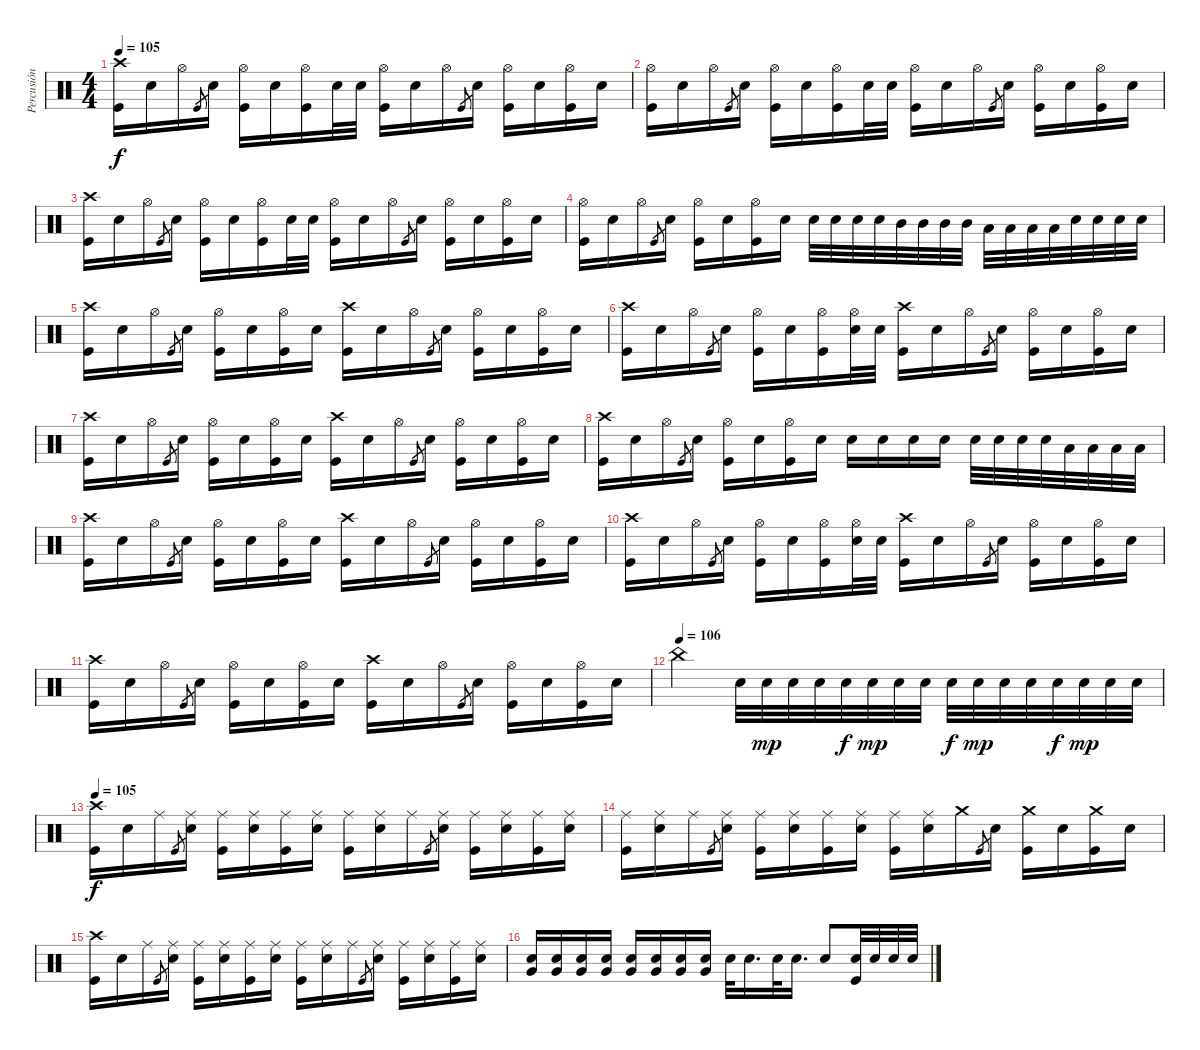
\track ("Percusión" "Percusión") {instrument percussion}
\staff {score}
\articulation defaults
\ts (4 4)
\tempo 105
\clef neutral
\ks c
("Kick (hit)" "Crash high (hit)").16{dy f} "Snare (hit) 2".16 "Hi-Hat (open)".16 "Kick (hit)".8{gr} "Snare (hit) 2".16 ("Kick (hit)" "Hi-Hat (open)").16 "Snare (hit) 2".16 ("Kick (hit)" "Hi-Hat (open)").16 "Snare (hit) 2".32 "Snare (hit) 2".32 ("Kick (hit)" "Hi-Hat (open)").16 "Snare (hit) 2".16 "Hi-Hat (open)".16 "Kick (hit)".8{gr} "Snare (hit) 2".16 ("Kick (hit)" "Hi-Hat (open)").16 "Snare (hit) 2".16 ("Kick (hit)" "Hi-Hat (open)").16 "Snare (hit) 2".16 |
("Kick (hit)" "Hi-Hat (open)").16 "Snare (hit) 2".16 "Hi-Hat (open)".16 "Kick (hit)".8{gr} "Snare (hit) 2".16 ("Kick (hit)" "Hi-Hat (open)").16 "Snare (hit) 2".16 ("Kick (hit)" "Hi-Hat (open)").16 "Snare (hit) 2".32 "Snare (hit) 2".32 ("Kick (hit)" "Hi-Hat (open)").16 "Snare (hit) 2".16 "Hi-Hat (open)".16 "Kick (hit)".8{gr} "Snare (hit) 2".16 ("Kick (hit)" "Hi-Hat (open)").16 "Snare (hit) 2".16 ("Kick (hit)" "Hi-Hat (open)").16 "Snare (hit) 2".16 |
("Kick (hit)" "Crash high (hit)").16 "Snare (hit) 2".16 "Hi-Hat (open)".16 "Kick (hit)".8{gr} "Snare (hit) 2".16 ("Kick (hit)" "Hi-Hat (open)").16 "Snare (hit) 2".16 ("Kick (hit)" "Hi-Hat (open)").16 "Snare (hit) 2".32 "Snare (hit) 2".32 ("Kick (hit)" "Hi-Hat (open)").16 "Snare (hit) 2".16 "Hi-Hat (open)".16 "Kick (hit)".8{gr} "Snare (hit) 2".16 ("Kick (hit)" "Hi-Hat (open)").16 "Snare (hit) 2".16 ("Kick (hit)" "Hi-Hat (open)").16 "Snare (hit) 2".16 |
("Kick (hit)" "Hi-Hat (open)").16 "Snare (hit) 2".16 "Hi-Hat (open)".16 "Kick (hit)".8{gr} "Snare (hit) 2".16 ("Kick (hit)" "Hi-Hat (open)").16 "Snare (hit) 2".16 ("Kick (hit)" "Hi-Hat (open)").16 "Snare (hit) 2".16 "Snare (hit) 2".32 "Snare (hit) 2".32 "Snare (hit) 2".32 "Snare (hit) 2".32 "Mid Tom (hit)".32 "Mid Tom (hit)".32 "Mid Tom (hit)".32 "Mid Tom (hit)".32 "Low Tom (hit)".32 "Low Tom (hit)".32 "Low Tom (hit)".32 "Low Tom (hit)".32 "Snare (hit) 2".32 "Snare (hit) 2".32 "Snare (hit) 2".32 "Snare (hit) 2".32 |
("Kick (hit)" "Crash high (hit)").16 "Snare (hit) 2".16 "Hi-Hat (open)".16 "Kick (hit)".8{gr} "Snare (hit) 2".16 ("Kick (hit)" "Hi-Hat (open)").16 "Snare (hit) 2".16 ("Kick (hit)" "Hi-Hat (open)").16 "Snare (hit) 2".16 ("Kick (hit)" "Crash high (hit)").16 "Snare (hit) 2".16 "Hi-Hat (open)".16 "Kick (hit)".8{gr} "Snare (hit) 2".16 ("Kick (hit)" "Hi-Hat (open)").16 "Snare (hit) 2".16 ("Kick (hit)" "Hi-Hat (open)").16 "Snare (hit) 2".16 |
("Kick (hit)" "Crash high (hit)").16 "Snare (hit) 2".16 "Hi-Hat (open)".16 "Kick (hit)".8{gr} "Snare (hit) 2".16 ("Kick (hit)" "Hi-Hat (open)").16 "Snare (hit) 2".16 ("Kick (hit)" "Hi-Hat (open)").16 ("Snare (hit) 2" "Hi-Hat (open)").32 "Snare (hit) 2".32 ("Kick (hit)" "Crash high (hit)").16 "Snare (hit) 2".16 "Hi-Hat (open)".16 "Kick (hit)".8{gr} "Snare (hit) 2".16 ("Kick (hit)" "Hi-Hat (open)").16 "Snare (hit) 2".16 ("Kick (hit)" "Hi-Hat (open)").16 "Snare (hit) 2".16 |
("Kick (hit)" "Crash high (hit)").16 "Snare (hit) 2".16 "Hi-Hat (open)".16 "Kick (hit)".8{gr} "Snare (hit) 2".16 ("Kick (hit)" "Hi-Hat (open)").16 "Snare (hit) 2".16 ("Kick (hit)" "Hi-Hat (open)").16 "Snare (hit) 2".16 ("Kick (hit)" "Crash high (hit)").16 "Snare (hit) 2".16 "Hi-Hat (open)".16 "Kick (hit)".8{gr} "Snare (hit) 2".16 ("Kick (hit)" "Hi-Hat (open)").16 "Snare (hit) 2".16 ("Kick (hit)" "Hi-Hat (open)").16 "Snare (hit) 2".16 |
("Kick (hit)" "Crash high (hit)").16 "Snare (hit) 2".16 "Hi-Hat (open)".16 "Kick (hit)".8{gr} "Snare (hit) 2".16 ("Kick (hit)" "Hi-Hat (open)").16 "Snare (hit) 2".16 ("Kick (hit)" "Hi-Hat (open)").16 "Snare (hit) 2".16 "Snare (hit) 2".16 "Snare (hit) 2".16 "Snare (hit) 2".16 "Snare (hit) 2".16 "Snare (hit) 2".32 "Snare (hit) 2".32 "Snare (hit) 2".32 "Snare (hit) 2".32 "Low Tom (hit)".32 "Low Tom (hit)".32 "Low Tom (hit)".32 "Low Tom (hit)".32 |
("Kick (hit)" "Crash high (hit)").16 "Snare (hit) 2".16 "Hi-Hat (open)".16 "Kick (hit)".8{gr} "Snare (hit) 2".16 ("Kick (hit)" "Hi-Hat (open)").16 "Snare (hit) 2".16 ("Kick (hit)" "Hi-Hat (open)").16 "Snare (hit) 2".16 ("Kick (hit)" "Crash high (hit)").16 "Snare (hit) 2".16 "Hi-Hat (open)".16 "Kick (hit)".8{gr} "Snare (hit) 2".16 ("Kick (hit)" "Hi-Hat (open)").16 "Snare (hit) 2".16 ("Kick (hit)" "Hi-Hat (open)").16 "Snare (hit) 2".16 |
("Kick (hit)" "Crash high (hit)").16 "Snare (hit) 2".16 "Hi-Hat (open)".16 "Kick (hit)".8{gr} "Snare (hit) 2".16 ("Kick (hit)" "Hi-Hat (open)").16 "Snare (hit) 2".16 ("Kick (hit)" "Hi-Hat (open)").16 ("Snare (hit) 2" "Hi-Hat (open)").32 "Snare (hit) 2".32 ("Kick (hit)" "Crash high (hit)").16 "Snare (hit) 2".16 "Hi-Hat (open)".16 "Kick (hit)".8{gr} "Snare (hit) 2".16 ("Kick (hit)" "Hi-Hat (open)").16 "Snare (hit) 2".16 ("Kick (hit)" "Hi-Hat (open)").16 "Snare (hit) 2".16 |
("Kick (hit)" "Crash high (hit)").16 "Snare (hit) 2".16 "Hi-Hat (open)".16 "Kick (hit)".8{gr} "Snare (hit) 2".16 ("Kick (hit)" "Hi-Hat (open)").16 "Snare (hit) 2".16 ("Kick (hit)" "Hi-Hat (open)").16 "Snare (hit) 2".16 ("Kick (hit)" "Crash high (hit)").16 "Snare (hit) 2".16 "Hi-Hat (open)".16 "Kick (hit)".8{gr} "Snare (hit) 2".16 ("Kick (hit)" "Hi-Hat (open)").16 "Snare (hit) 2".16 ("Kick (hit)" "Hi-Hat (open)").16 "Snare (hit) 2".16 |
\tempo (106)
"China (hit)".2 "Snare (hit) 2".32 "Snare (hit) 2".32{dy mp} "Snare (hit) 2".32 "Snare (hit) 2".32 "Snare (hit) 2".32{dy f} "Snare (hit) 2".32{dy mp} "Snare (hit) 2".32 "Snare (hit) 2".32 "Snare (hit) 2".32{dy f} "Snare (hit) 2".32{dy mp} "Snare (hit) 2".32 "Snare (hit) 2".32 "Snare (hit) 2".32{dy f} "Snare (hit) 2".32{dy mp} "Snare (hit) 2".32 "Snare (hit) 2".32 |
\tempo 105
("Kick (hit)" "Crash high (hit)").16{dy f} "Snare (hit) 2".16 "Ride (middle)".16 "Kick (hit)".8{gr} ("Snare (hit) 2" "Ride (middle)").16 ("Kick (hit)" "Ride (middle)").16 ("Snare (hit) 2" "Ride (middle)").16 ("Kick (hit)" "Ride (middle)").16 ("Snare (hit) 2" "Ride (middle)").16 ("Kick (hit)" "Ride (middle)").16 ("Snare (hit) 2" "Ride (middle)").16 "Ride (middle)".16 "Kick (hit)".8{gr} ("Snare (hit) 2" "Ride (middle)").16 ("Kick (hit)" "Ride (middle)").16 ("Snare (hit) 2" "Ride (middle)").16 ("Kick (hit)" "Ride (middle)").16 ("Snare (hit) 2" "Ride (middle)").16 |
("Kick (hit)" "Ride (middle)").16 ("Snare (hit) 2" "Ride (middle)").16 "Ride (middle)".16 "Kick (hit)".8{gr} ("Snare (hit) 2" "Ride (middle)").16 ("Kick (hit)" "Ride (middle)").16 ("Snare (hit) 2" "Ride (middle)").16 ("Kick (hit)" "Ride (middle)").16 ("Snare (hit) 2" "Ride (middle)").16 ("Kick (hit)" "Ride (middle)").16 ("Snare (hit) 2" "Ride (middle)").16 "Crash medium (hit)".16 "Kick (hit)".8{gr} "Snare (hit) 2".16 ("Kick (hit)" "Crash medium (hit)").16 "Snare (hit) 2".16 ("Kick (hit)" "Crash medium (hit)").16 "Snare (hit) 2".16 |
("Kick (hit)" "Crash high (hit)").16 "Snare (hit) 2".16 "Ride (middle)".16 "Kick (hit)".8{gr} ("Snare (hit) 2" "Ride (middle)").16 ("Kick (hit)" "Ride (middle)").16 ("Snare (hit) 2" "Ride (middle)").16 ("Kick (hit)" "Ride (middle)").16 ("Snare (hit) 2" "Ride (middle)").16 ("Kick (hit)" "Ride (middle)").16 ("Snare (hit) 2" "Ride (middle)").16 "Ride (middle)".16 "Kick (hit)".8{gr} ("Snare (hit) 2" "Ride (middle)").16 ("Kick (hit)" "Ride (middle)").16 ("Snare (hit) 2" "Ride (middle)").16 ("Kick (hit)" "Ride (middle)").16 ("Snare (hit) 2" "Ride (middle)").16 |
("Snare (hit) 2" "Very Low Tom (hit)").16 ("Snare (hit) 2" "Very Low Tom (hit)").16 ("Snare (hit) 2" "Very Low Tom (hit)").16 ("Snare (hit) 2" "Very Low Tom (hit)").16 ("Snare (hit) 2" "Very Low Tom (hit)").16 ("Snare (hit) 2" "Very Low Tom (hit)").16 ("Snare (hit) 2" "Very Low Tom (hit)").16 ("Snare (hit) 2" "Very Low Tom (hit)").16 "Snare (hit) 2".32 "Snare (hit) 2".16{d} "Snare (hit) 2".32 "Snare (hit) 2".16{d} "Snare (hit) 2".8 ("Snare (hit) 2" "Kick (hit)").32 "Snare (hit) 2".32 "Snare (hit) 2".32 "Snare (hit) 2".32
